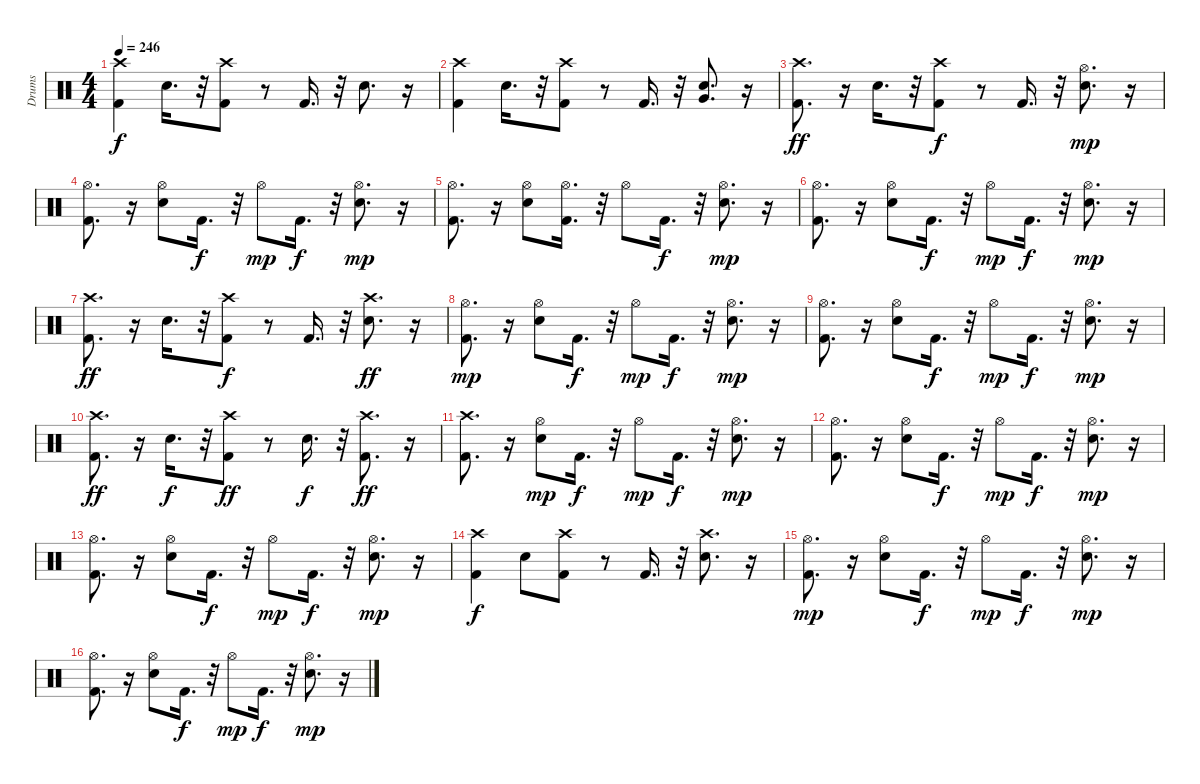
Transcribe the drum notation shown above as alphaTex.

\track ("Drums" "Drums") {instrument percussion}
\staff {score}
\articulation defaults
\ts (4 4)
\tempo 246
\clef neutral
\ks c
("Kick (hit) 2" "Crash high (hit)").4{dy f} "Electric Snare (hit)".16{d} r.32 ("Kick (hit) 2" "Crash high (hit)").8 r.8 "Kick (hit) 2".16{d} r.32 "Electric Snare (hit)".8{d} r.16 |
("Kick (hit) 2" "Crash high (hit)").4 "Electric Snare (hit)".16{d} r.32 ("Kick (hit) 2" "Crash high (hit)").8 r.8 "Kick (hit) 2".16{d} r.32 ("Electric Snare (hit)" "Very Low Tom (hit)").8{d} r.16 |
("Kick (hit) 2" "Crash high (hit)").8{d dy ff} r.16 "Electric Snare (hit)".16{d} r.32 ("Kick (hit) 2" "Crash high (hit)").8{dy f} r.8 "Kick (hit) 2".16{d} r.32 ("Electric Snare (hit)" "Hi-Hat (open)").8{d dy mp} r.16 |
("Kick (hit) 2" "Hi-Hat (open)").8{d} r.16 ("Electric Snare (hit)" "Hi-Hat (open)").8 "Kick (hit) 2".16{d dy f} r.32 "Hi-Hat (open)".8{dy mp} "Kick (hit) 2".16{d dy f} r.32 ("Electric Snare (hit)" "Hi-Hat (open)").8{d dy mp} r.16 |
("Kick (hit) 2" "Hi-Hat (open)").8{d} r.16 ("Electric Snare (hit)" "Hi-Hat (open)").8 ("Kick (hit) 2" "Hi-Hat (open)").16{d} r.32 "Hi-Hat (open)".8 "Kick (hit) 2".16{d dy f} r.32 ("Electric Snare (hit)" "Hi-Hat (open)").8{d dy mp} r.16 |
("Kick (hit) 2" "Hi-Hat (open)").8{d} r.16 ("Electric Snare (hit)" "Hi-Hat (open)").8 "Kick (hit) 2".16{d dy f} r.32 "Hi-Hat (open)".8{dy mp} "Kick (hit) 2".16{d dy f} r.32 ("Electric Snare (hit)" "Hi-Hat (open)").8{d dy mp} r.16 |
("Kick (hit) 2" "Crash high (hit)").8{d dy ff} r.16 "Electric Snare (hit)".16{d} r.32 ("Kick (hit) 2" "Crash high (hit)").8{dy f} r.8 "Kick (hit) 2".16{d} r.32 ("Electric Snare (hit)" "Crash high (hit)").8{d dy ff} r.16 |
("Kick (hit) 2" "Hi-Hat (open)").8{d dy mp} r.16 ("Electric Snare (hit)" "Hi-Hat (open)").8 "Kick (hit) 2".16{d dy f} r.32 "Hi-Hat (open)".8{dy mp} "Kick (hit) 2".16{d dy f} r.32 ("Electric Snare (hit)" "Hi-Hat (open)").8{d dy mp} r.16 |
("Kick (hit) 2" "Hi-Hat (open)").8{d} r.16 ("Electric Snare (hit)" "Hi-Hat (open)").8 "Kick (hit) 2".16{d dy f} r.32 "Hi-Hat (open)".8{dy mp} "Kick (hit) 2".16{d dy f} r.32 ("Electric Snare (hit)" "Hi-Hat (open)").8{d dy mp} r.16 |
("Kick (hit) 2" "Crash high (hit)").8{d dy ff} r.16 "Electric Snare (hit)".16{d dy f} r.32 ("Kick (hit) 2" "Crash high (hit)").8{dy ff} r.8 "Electric Snare (hit)".16{d dy f} r.32 ("Kick (hit) 2" "Crash high (hit)").8{d dy ff} r.16 |
("Kick (hit) 2" "Crash high (hit)").8{d} r.16 ("Electric Snare (hit)" "Hi-Hat (open)").8{dy mp} "Kick (hit) 2".16{d dy f} r.32 "Hi-Hat (open)".8{dy mp} "Kick (hit) 2".16{d dy f} r.32 ("Electric Snare (hit)" "Hi-Hat (open)").8{d dy mp} r.16 |
("Kick (hit) 2" "Hi-Hat (open)").8{d} r.16 ("Electric Snare (hit)" "Hi-Hat (open)").8 "Kick (hit) 2".16{d dy f} r.32 "Hi-Hat (open)".8{dy mp} "Kick (hit) 2".16{d dy f} r.32 ("Electric Snare (hit)" "Hi-Hat (open)").8{d dy mp} r.16 |
("Kick (hit) 2" "Hi-Hat (open)").8{d} r.16 ("Electric Snare (hit)" "Hi-Hat (open)").8 "Kick (hit) 2".16{d dy f} r.32 "Hi-Hat (open)".8{dy mp} "Kick (hit) 2".16{d dy f} r.32 ("Electric Snare (hit)" "Hi-Hat (open)").8{d dy mp} r.16 |
("Kick (hit) 2" "Crash high (hit)").4{dy f} "Electric Snare (hit)".8 ("Kick (hit) 2" "Crash high (hit)").8 r.8 "Kick (hit) 2".16{d} r.32 ("Crash high (hit)" "Electric Snare (hit)").8{d} r.16 |
("Kick (hit) 2" "Hi-Hat (open)").8{d dy mp} r.16 ("Electric Snare (hit)" "Hi-Hat (open)").8 "Kick (hit) 2".16{d dy f} r.32 "Hi-Hat (open)".8{dy mp} "Kick (hit) 2".16{d dy f} r.32 ("Electric Snare (hit)" "Hi-Hat (open)").8{d dy mp} r.16 |
("Kick (hit) 2" "Hi-Hat (open)").8{d} r.16 ("Electric Snare (hit)" "Hi-Hat (open)").8 "Kick (hit) 2".16{d dy f} r.32 "Hi-Hat (open)".8{dy mp} "Kick (hit) 2".16{d dy f} r.32 ("Electric Snare (hit)" "Hi-Hat (open)").8{d dy mp} r.16
